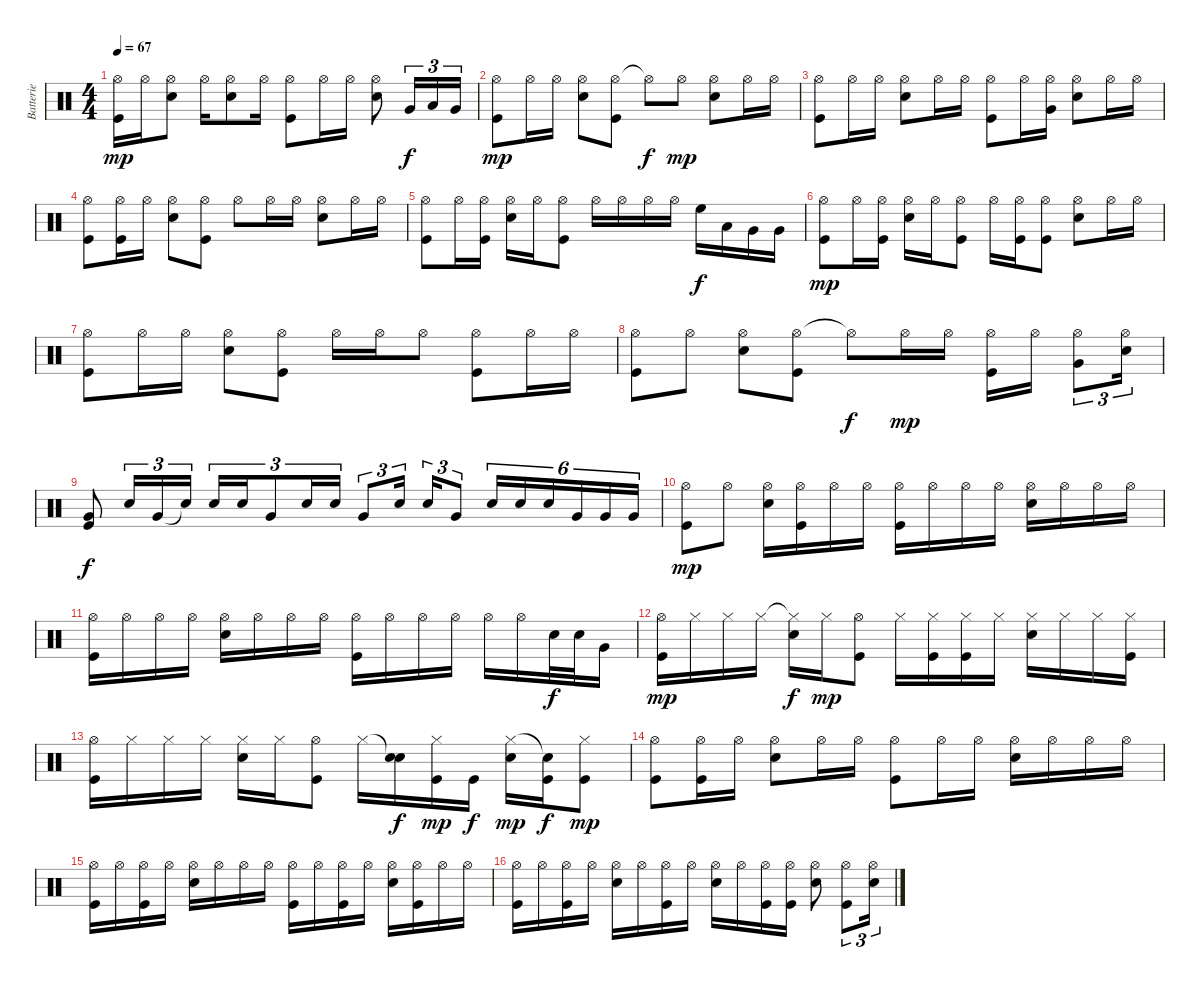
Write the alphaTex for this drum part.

\track ("Batterie" "Batterie") {instrument percussion}
\staff {score}
\articulation defaults
\ts (4 4)
\tempo 67
\clef neutral
\ks c
("Hi-Hat (open)" "Kick (hit)").16{dy mp} "Hi-Hat (open)".16 ("Hi-Hat (open)" "Snare (hit) 2").8 "Hi-Hat (open)".16 ("Hi-Hat (open)" "Snare (hit) 2").8 "Hi-Hat (open)".16 ("Hi-Hat (open)" "Kick (hit)").8 "Hi-Hat (open)".16 "Hi-Hat (open)".16 ("Hi-Hat (open)" "Snare (hit) 2").8 "Very Low Tom (hit)".16{tu (3 2) dy f} "Low Tom (hit)".16{tu (3 2)} "Very Low Tom (hit)".16{tu (3 2)} |
("Hi-Hat (open)" "Kick (hit)").8{dy mp} "Hi-Hat (open)".16 "Hi-Hat (open)".16 ("Hi-Hat (open)" "Snare (hit) 2").8 ("Hi-Hat (open)" "Kick (hit)").8 "Hi-Hat (open)"{t}.8{dy f} "Hi-Hat (open)".8{dy mp} ("Hi-Hat (open)" "Snare (hit) 2").8 "Hi-Hat (open)".16 "Hi-Hat (open)".16 |
("Hi-Hat (open)" "Kick (hit)").8 "Hi-Hat (open)".16 "Hi-Hat (open)".16 ("Hi-Hat (open)" "Snare (hit) 2").8 "Hi-Hat (open)".16 "Hi-Hat (open)".16 ("Hi-Hat (open)" "Kick (hit)").8 "Hi-Hat (open)".16 ("Hi-Hat (open)" "Very Low Tom (hit)").16 ("Hi-Hat (open)" "Snare (hit) 2").8 "Hi-Hat (open)".16 "Hi-Hat (open)".16 |
("Hi-Hat (open)" "Kick (hit)").8 ("Hi-Hat (open)" "Kick (hit)").16 "Hi-Hat (open)".16 ("Hi-Hat (open)" "Snare (hit) 2").8 ("Hi-Hat (open)" "Kick (hit)").8 "Hi-Hat (open)".8 "Hi-Hat (open)".16 "Hi-Hat (open)".16 ("Hi-Hat (open)" "Snare (hit) 2").8 "Hi-Hat (open)".16 "Hi-Hat (open)".16 |
("Hi-Hat (open)" "Kick (hit)").8 "Hi-Hat (open)".16 ("Hi-Hat (open)" "Kick (hit)").16 ("Hi-Hat (open)" "Snare (hit) 2").16 "Hi-Hat (open)".16 ("Hi-Hat (open)" "Kick (hit)").8 "Hi-Hat (open)".16 "Hi-Hat (open)".16 "Hi-Hat (open)".16 "Hi-Hat (open)".16 "High Floor Tom (hit)".16{dy f} "Low Tom (hit)".16 "Very Low Tom (hit)".16 "Very Low Tom (hit)".16 |
("Hi-Hat (open)" "Kick (hit)").8{dy mp} "Hi-Hat (open)".16 ("Hi-Hat (open)" "Kick (hit)").16 ("Hi-Hat (open)" "Snare (hit) 2").16 "Hi-Hat (open)".16 ("Hi-Hat (open)" "Kick (hit)").8 "Hi-Hat (open)".16 ("Hi-Hat (open)" "Kick (hit)").16 ("Hi-Hat (open)" "Kick (hit)").8 ("Hi-Hat (open)" "Snare (hit) 2").8 "Hi-Hat (open)".16 "Hi-Hat (open)".16 |
("Hi-Hat (open)" "Kick (hit)").8 "Hi-Hat (open)".16 "Hi-Hat (open)".16 ("Hi-Hat (open)" "Snare (hit) 2").8 ("Hi-Hat (open)" "Kick (hit)").8 "Hi-Hat (open)".16 "Hi-Hat (open)".16 "Hi-Hat (open)".8 ("Hi-Hat (open)" "Kick (hit)").8 "Hi-Hat (open)".16 "Hi-Hat (open)".16 |
("Hi-Hat (open)" "Kick (hit)").8 "Hi-Hat (open)".8 ("Hi-Hat (open)" "Snare (hit) 2").8 ("Hi-Hat (open)" "Kick (hit)").8 "Hi-Hat (open)"{t}.8{dy f} "Hi-Hat (open)".16{dy mp} "Hi-Hat (open)".16 ("Hi-Hat (open)" "Kick (hit)").16 "Hi-Hat (open)".16 ("Hi-Hat (open)" "Very Low Tom (hit)").8{tu (3 2)} ("Hi-Hat (open)" "Snare (hit) 2").16{tu (3 2)} |
("Very Low Tom (hit)" "Kick (hit)").8{dy f} "Snare (hit) 2".16{tu (3 2)} "Very Low Tom (hit)".16{tu (3 2)} "Snare (hit)"{t}.16{tu (3 2)} "Snare (hit) 2".16{tu (3 2)} "Snare (hit) 2".16{tu (3 2)} "Very Low Tom (hit)".8{tu (3 2)} "Snare (hit) 2".16{tu (3 2)} "Snare (hit) 2".16{tu (3 2)} "Very Low Tom (hit)".8{tu (3 2)} "Snare (hit) 2".16{tu (3 2)} "Snare (hit) 2".16{tu (3 2)} "Very Low Tom (hit)".8{tu (3 2)} "Snare (hit) 2".16{tu (6 4)} "Snare (hit) 2".16{tu (6 4)} "Snare (hit) 2".16{tu (6 4)} "Very Low Tom (hit)".16{tu (6 4)} "Very Low Tom (hit)".16{tu (6 4)} "Very Low Tom (hit)".16{tu (6 4)} |
("Hi-Hat (open)" "Kick (hit)").8{dy mp} "Hi-Hat (open)".8 ("Hi-Hat (open)" "Snare (hit) 2").16 ("Hi-Hat (open)" "Kick (hit)").16 "Hi-Hat (open)".16 "Hi-Hat (open)".16 ("Hi-Hat (open)" "Kick (hit)").16 "Hi-Hat (open)".16 "Hi-Hat (open)".16 "Hi-Hat (open)".16 ("Hi-Hat (open)" "Snare (hit) 2").16 "Hi-Hat (open)".16 "Hi-Hat (open)".16 "Hi-Hat (open)".16 |
("Hi-Hat (open)" "Kick (hit)").16 "Hi-Hat (open)".16 "Hi-Hat (open)".16 "Hi-Hat (open)".16 ("Hi-Hat (open)" "Snare (hit) 2").16 "Hi-Hat (open)".16 "Hi-Hat (open)".16 "Hi-Hat (open)".16 ("Hi-Hat (open)" "Kick (hit)").16 "Hi-Hat (open)".16 "Hi-Hat (open)".16 "Hi-Hat (open)".16 "Hi-Hat (open)".16 "Hi-Hat (open)".16 "Snare (hit) 2".32{dy f} "Snare (hit) 2".32 "Very Low Tom (hit)".16 |
("Hi-Hat (open)" "Kick (hit)").16{dy mp} "Hi-Hat (closed)".16 "Hi-Hat (closed)".16 "Hi-Hat (closed)".16 ("Hi-Hat (closed)"{t} "Snare (hit) 2").16{dy f} "Hi-Hat (closed)".16{dy mp} ("Hi-Hat (open)" "Kick (hit)").8 "Hi-Hat (closed)".16 ("Hi-Hat (closed)" "Kick (hit)").16 ("Hi-Hat (closed)" "Kick (hit)").16 "Hi-Hat (closed)".16 ("Hi-Hat (closed)" "Snare (hit) 2").16 "Hi-Hat (closed)".16 "Hi-Hat (closed)".16 ("Hi-Hat (closed)" "Kick (hit)").16 |
("Hi-Hat (open)" "Kick (hit)").16 "Hi-Hat (closed)".16 "Hi-Hat (closed)".16 "Hi-Hat (closed)".16 ("Hi-Hat (closed)" "Snare (hit) 2").16 "Hi-Hat (closed)".16 ("Hi-Hat (open)" "Kick (hit)").8 "Hi-Hat (closed)".16 ("Snare (hit)"{t} "Snare (hit) 2").16{dy f} ("Hi-Hat (closed)" "Kick (hit)").16{dy mp} "Kick (hit)".16{dy f} ("Hi-Hat (closed)" "Snare (hit) 2").16{dy mp} ("Snare (hit)"{t} "Kick (hit)").16{dy f} ("Hi-Hat (closed)" "Kick (hit)").8{dy mp} |
("Hi-Hat (open)" "Kick (hit)").8 ("Hi-Hat (open)" "Kick (hit)").16 "Hi-Hat (open)".16 ("Hi-Hat (open)" "Snare (hit) 2").8 "Hi-Hat (open)".16 "Hi-Hat (open)".16 ("Hi-Hat (open)" "Kick (hit)").8 "Hi-Hat (open)".16 "Hi-Hat (open)".16 ("Hi-Hat (open)" "Snare (hit) 2").16 "Hi-Hat (open)".16 "Hi-Hat (open)".16 "Hi-Hat (open)".16 |
("Hi-Hat (open)" "Kick (hit)").16 "Hi-Hat (open)".16 ("Hi-Hat (open)" "Kick (hit)").16 "Hi-Hat (open)".16 ("Hi-Hat (open)" "Snare (hit) 2").16 "Hi-Hat (open)".16 "Hi-Hat (open)".16 "Hi-Hat (open)".16 ("Hi-Hat (open)" "Kick (hit)").16 "Hi-Hat (open)".16 ("Hi-Hat (open)" "Kick (hit)").16 "Hi-Hat (open)".16 ("Hi-Hat (open)" "Snare (hit) 2").16 ("Hi-Hat (open)" "Kick (hit)").16 "Hi-Hat (open)".16 "Hi-Hat (open)".16 |
("Hi-Hat (open)" "Kick (hit)").16 "Hi-Hat (open)".16 ("Hi-Hat (open)" "Kick (hit)").16 "Hi-Hat (open)".16 ("Hi-Hat (open)" "Snare (hit) 2").16 "Hi-Hat (open)".16 ("Hi-Hat (open)" "Kick (hit)").16 "Hi-Hat (open)".16 ("Hi-Hat (open)" "Snare (hit) 2").16 "Hi-Hat (open)".16 ("Hi-Hat (open)" "Kick (hit)").16 ("Hi-Hat (open)" "Kick (hit)").16 ("Hi-Hat (open)" "Snare (hit) 2").8 ("Hi-Hat (open)" "Kick (hit)").8{tu (3 2)} ("Hi-Hat (open)" "Snare (hit) 2").16{tu (3 2)}
